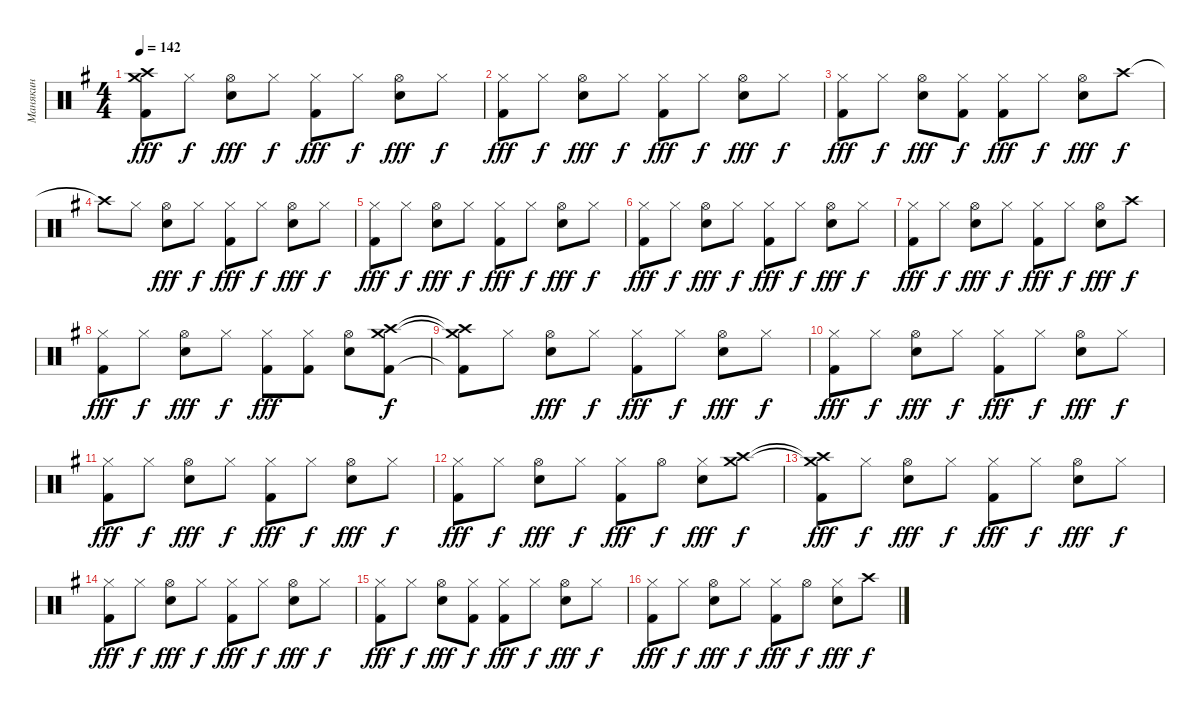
\track ("Манякин" "Манякин") {instrument percussion}
\staff {score}
\articulation defaults
\ts (4 4)
\tempo 142
\clef neutral
\ks eminor
("Crash high (hit)"{t} "Crash medium (hit)"{t} "Kick (hit) 2").8{dy fff} "Hi-Hat (closed)".8{dy f} ("Hi-Hat (open)" "Electric Snare (hit)").8{dy fff} "Hi-Hat (closed)".8{dy f} ("Hi-Hat (closed)" "Kick (hit) 2").8{dy fff} "Hi-Hat (closed)".8{dy f} ("Hi-Hat (open)" "Electric Snare (hit)").8{dy fff} "Hi-Hat (closed)".8{dy f} |
("Hi-Hat (closed)" "Kick (hit) 2").8{dy fff} "Hi-Hat (closed)".8{dy f} ("Hi-Hat (open)" "Electric Snare (hit)").8{dy fff} "Hi-Hat (closed)".8{dy f} ("Hi-Hat (closed)" "Kick (hit) 2").8{dy fff} "Hi-Hat (closed)".8{dy f} ("Hi-Hat (open)" "Electric Snare (hit)").8{dy fff} "Hi-Hat (closed)".8{dy f} |
("Hi-Hat (closed)" "Kick (hit) 2").8{dy fff} "Hi-Hat (closed)".8{dy f} ("Hi-Hat (open)" "Electric Snare (hit)").8{dy fff} ("Hi-Hat (closed)" "Kick (hit) 2").8{dy f} ("Hi-Hat (closed)" "Kick (hit) 2").8{dy fff} "Hi-Hat (closed)".8{dy f} ("Hi-Hat (open)" "Electric Snare (hit)").8{dy fff} "Crash high (hit)".8{dy f} |
"Crash high (hit)"{t}.8 "Hi-Hat (closed)".8 ("Hi-Hat (open)" "Electric Snare (hit)").8{dy fff} "Hi-Hat (closed)".8{dy f} ("Hi-Hat (closed)" "Kick (hit) 2").8{dy fff} "Hi-Hat (closed)".8{dy f} ("Hi-Hat (open)" "Electric Snare (hit)").8{dy fff} "Hi-Hat (closed)".8{dy f} |
("Hi-Hat (closed)" "Kick (hit) 2").8{dy fff} "Hi-Hat (closed)".8{dy f} ("Hi-Hat (open)" "Electric Snare (hit)").8{dy fff} "Hi-Hat (closed)".8{dy f} ("Hi-Hat (closed)" "Kick (hit) 2").8{dy fff} "Hi-Hat (closed)".8{dy f} ("Hi-Hat (open)" "Electric Snare (hit)").8{dy fff} "Hi-Hat (closed)".8{dy f} |
("Hi-Hat (closed)" "Kick (hit) 2").8{dy fff} "Hi-Hat (closed)".8{dy f} ("Hi-Hat (open)" "Electric Snare (hit)").8{dy fff} "Hi-Hat (closed)".8{dy f} ("Hi-Hat (closed)" "Kick (hit) 2").8{dy fff} "Hi-Hat (closed)".8{dy f} ("Hi-Hat (open)" "Electric Snare (hit)").8{dy fff} "Hi-Hat (closed)".8{dy f} |
("Hi-Hat (closed)" "Kick (hit) 2").8{dy fff} "Hi-Hat (closed)".8{dy f} ("Hi-Hat (open)" "Electric Snare (hit)").8{dy fff} "Hi-Hat (closed)".8{dy f} ("Hi-Hat (closed)" "Kick (hit) 2").8{dy fff} "Hi-Hat (closed)".8{dy f} ("Hi-Hat (open)" "Electric Snare (hit)").8{dy fff} "Crash high (hit)".8{dy f} |
("Hi-Hat (closed)" "Kick (hit) 2").8{dy fff} "Hi-Hat (closed)".8{dy f} ("Hi-Hat (open)" "Electric Snare (hit)").8{dy fff} "Hi-Hat (closed)".8{dy f} ("Hi-Hat (closed)" "Kick (hit) 2").8{dy fff} ("Hi-Hat (closed)" "Kick (hit) 2").8 ("Hi-Hat (open)" "Electric Snare (hit)").8 ("Crash high (hit)" "Crash medium (hit)" "Kick (hit) 2").8{dy f} |
("Crash high (hit)"{t} "Crash medium (hit)"{t} "Kick (hit) 2"{t}).8 "Hi-Hat (closed)".8 ("Hi-Hat (open)" "Electric Snare (hit)").8{dy fff} "Hi-Hat (closed)".8{dy f} ("Hi-Hat (closed)" "Kick (hit) 2").8{dy fff} "Hi-Hat (closed)".8{dy f} ("Hi-Hat (open)" "Electric Snare (hit)").8{dy fff} "Hi-Hat (closed)".8{dy f} |
("Hi-Hat (closed)" "Kick (hit) 2").8{dy fff} "Hi-Hat (closed)".8{dy f} ("Hi-Hat (open)" "Electric Snare (hit)").8{dy fff} "Hi-Hat (closed)".8{dy f} ("Hi-Hat (closed)" "Kick (hit) 2").8{dy fff} "Hi-Hat (closed)".8{dy f} ("Hi-Hat (open)" "Electric Snare (hit)").8{dy fff} "Hi-Hat (closed)".8{dy f} |
("Hi-Hat (closed)" "Kick (hit) 2").8{dy fff} "Hi-Hat (closed)".8{dy f} ("Hi-Hat (open)" "Electric Snare (hit)").8{dy fff} "Hi-Hat (closed)".8{dy f} ("Hi-Hat (closed)" "Kick (hit) 2").8{dy fff} "Hi-Hat (closed)".8{dy f} ("Hi-Hat (open)" "Electric Snare (hit)").8{dy fff} "Hi-Hat (closed)".8{dy f} |
("Hi-Hat (closed)" "Kick (hit) 2").8{dy fff} "Hi-Hat (closed)".8{dy f} ("Hi-Hat (open)" "Electric Snare (hit)").8{dy fff} "Hi-Hat (closed)".8{dy f} ("Hi-Hat (closed)" "Kick (hit) 2").8{dy fff} "Hi-Hat (open)".8{dy f} ("Hi-Hat (closed)" "Electric Snare (hit)").8{dy fff} ("Crash high (hit)" "Crash medium (hit)").8{dy f} |
("Crash high (hit)"{t} "Crash medium (hit)"{t} "Kick (hit) 2").8{dy fff} "Hi-Hat (closed)".8{dy f} ("Hi-Hat (open)" "Electric Snare (hit)").8{dy fff} "Hi-Hat (closed)".8{dy f} ("Hi-Hat (closed)" "Kick (hit) 2").8{dy fff} "Hi-Hat (closed)".8{dy f} ("Hi-Hat (open)" "Electric Snare (hit)").8{dy fff} "Hi-Hat (closed)".8{dy f} |
("Hi-Hat (closed)" "Kick (hit) 2").8{dy fff} "Hi-Hat (closed)".8{dy f} ("Hi-Hat (open)" "Electric Snare (hit)").8{dy fff} "Hi-Hat (closed)".8{dy f} ("Hi-Hat (closed)" "Kick (hit) 2").8{dy fff} "Hi-Hat (closed)".8{dy f} ("Hi-Hat (open)" "Electric Snare (hit)").8{dy fff} "Hi-Hat (closed)".8{dy f} |
("Hi-Hat (closed)" "Kick (hit) 2").8{dy fff} "Hi-Hat (closed)".8{dy f} ("Hi-Hat (open)" "Electric Snare (hit)").8{dy fff} ("Hi-Hat (closed)" "Kick (hit) 2").8{dy f} ("Hi-Hat (closed)" "Kick (hit) 2").8{dy fff} "Hi-Hat (closed)".8{dy f} ("Hi-Hat (open)" "Electric Snare (hit)").8{dy fff} "Hi-Hat (closed)".8{dy f} |
("Hi-Hat (closed)" "Kick (hit) 2").8{dy fff} "Hi-Hat (closed)".8{dy f} ("Hi-Hat (open)" "Electric Snare (hit)").8{dy fff} "Hi-Hat (closed)".8{dy f} ("Hi-Hat (closed)" "Kick (hit) 2").8{dy fff} "Hi-Hat (open)".8{dy f} ("Hi-Hat (closed)" "Electric Snare (hit)").8{dy fff} "Crash high (hit)".8{dy f}
